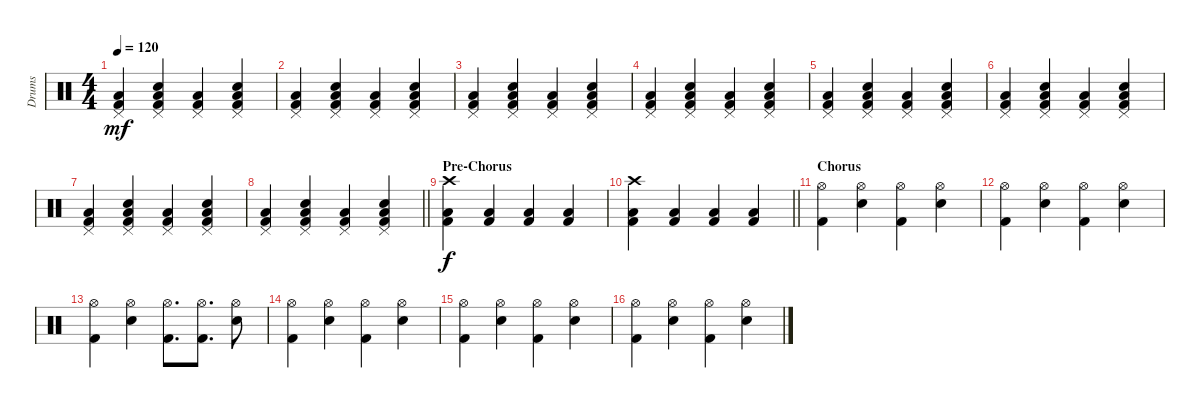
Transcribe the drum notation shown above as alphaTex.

\track ("Drums" "Drums") {instrument percussion}
\staff {score}
\articulation defaults
\ts (4 4)
\tempo 120
\clef neutral
\ks c
("Pedal Hi-Hat (hit)" "Low Floor Tom (hit)" "Kick (hit) 2").4{dy mf} ("Pedal Hi-Hat (hit)" "Snare (hit) 2" "Low Floor Tom (hit)" "Kick (hit) 2").4 ("Pedal Hi-Hat (hit)" "Low Floor Tom (hit)" "Kick (hit) 2").4 ("Pedal Hi-Hat (hit)" "Snare (hit) 2" "Low Floor Tom (hit)" "Kick (hit) 2").4 |
("Pedal Hi-Hat (hit)" "Low Floor Tom (hit)" "Kick (hit) 2").4 ("Pedal Hi-Hat (hit)" "Snare (hit) 2" "Low Floor Tom (hit)" "Kick (hit) 2").4 ("Pedal Hi-Hat (hit)" "Low Floor Tom (hit)" "Kick (hit) 2").4 ("Pedal Hi-Hat (hit)" "Snare (hit) 2" "Low Floor Tom (hit)" "Kick (hit) 2").4 |
("Pedal Hi-Hat (hit)" "Low Floor Tom (hit)" "Kick (hit) 2").4 ("Pedal Hi-Hat (hit)" "Snare (hit) 2" "Low Floor Tom (hit)" "Kick (hit) 2").4 ("Pedal Hi-Hat (hit)" "Low Floor Tom (hit)" "Kick (hit) 2").4 ("Pedal Hi-Hat (hit)" "Snare (hit) 2" "Low Floor Tom (hit)" "Kick (hit) 2").4 |
("Pedal Hi-Hat (hit)" "Low Floor Tom (hit)" "Kick (hit) 2").4 ("Pedal Hi-Hat (hit)" "Snare (hit) 2" "Low Floor Tom (hit)" "Kick (hit) 2").4 ("Pedal Hi-Hat (hit)" "Low Floor Tom (hit)" "Kick (hit) 2").4 ("Pedal Hi-Hat (hit)" "Snare (hit) 2" "Low Floor Tom (hit)" "Kick (hit) 2").4 |
("Pedal Hi-Hat (hit)" "Low Floor Tom (hit)" "Kick (hit) 2").4 ("Pedal Hi-Hat (hit)" "Snare (hit) 2" "Low Floor Tom (hit)" "Kick (hit) 2").4 ("Pedal Hi-Hat (hit)" "Low Floor Tom (hit)" "Kick (hit) 2").4 ("Pedal Hi-Hat (hit)" "Snare (hit) 2" "Low Floor Tom (hit)" "Kick (hit) 2").4 |
("Pedal Hi-Hat (hit)" "Low Floor Tom (hit)" "Kick (hit) 2").4 ("Pedal Hi-Hat (hit)" "Snare (hit) 2" "Low Floor Tom (hit)" "Kick (hit) 2").4 ("Pedal Hi-Hat (hit)" "Low Floor Tom (hit)" "Kick (hit) 2").4 ("Pedal Hi-Hat (hit)" "Snare (hit) 2" "Low Floor Tom (hit)" "Kick (hit) 2").4 |
("Pedal Hi-Hat (hit)" "Low Floor Tom (hit)" "Kick (hit) 2").4 ("Pedal Hi-Hat (hit)" "Snare (hit) 2" "Low Floor Tom (hit)" "Kick (hit) 2").4 ("Pedal Hi-Hat (hit)" "Low Floor Tom (hit)" "Kick (hit) 2").4 ("Pedal Hi-Hat (hit)" "Snare (hit) 2" "Low Floor Tom (hit)" "Kick (hit) 2").4 |
\barLineRight lightlight
("Pedal Hi-Hat (hit)" "Low Floor Tom (hit)" "Kick (hit) 2").4 ("Pedal Hi-Hat (hit)" "Snare (hit) 2" "Low Floor Tom (hit)" "Kick (hit) 2").4 ("Pedal Hi-Hat (hit)" "Low Floor Tom (hit)" "Kick (hit) 2").4 ("Pedal Hi-Hat (hit)" "Snare (hit) 2" "Low Floor Tom (hit)" "Kick (hit) 2").4 |
\section ("" "Pre-Chorus")
("Crash high (hit)" "Low Floor Tom (hit)" "Kick (hit) 2").4{dy f} ("Low Floor Tom (hit)" "Kick (hit) 2").4 ("Low Floor Tom (hit)" "Kick (hit) 2").4 ("Low Floor Tom (hit)" "Kick (hit) 2").4 |
\barLineRight lightlight
("Crash high (hit)" "Low Floor Tom (hit)" "Kick (hit) 2").4 ("Low Floor Tom (hit)" "Kick (hit) 2").4 ("Low Floor Tom (hit)" "Kick (hit) 2").4 ("Low Floor Tom (hit)" "Kick (hit) 2").4 |
\section ("" "Chorus")
("Hi-Hat (open)" "Kick (hit) 2").4 ("Hi-Hat (open)" "Snare (hit) 2").4 ("Hi-Hat (open)" "Kick (hit) 2").4 ("Hi-Hat (open)" "Snare (hit) 2").4 |
("Hi-Hat (open)" "Kick (hit) 2").4 ("Hi-Hat (open)" "Snare (hit) 2").4 ("Hi-Hat (open)" "Kick (hit) 2").4 ("Hi-Hat (open)" "Snare (hit) 2").4 |
("Hi-Hat (open)" "Kick (hit) 2").4 ("Hi-Hat (open)" "Snare (hit) 2").4 ("Hi-Hat (open)" "Kick (hit) 2").8{d} ("Hi-Hat (open)" "Kick (hit) 2").8{d} ("Hi-Hat (open)" "Snare (hit) 2").8 |
("Hi-Hat (open)" "Kick (hit) 2").4 ("Hi-Hat (open)" "Snare (hit) 2").4 ("Hi-Hat (open)" "Kick (hit) 2").4 ("Hi-Hat (open)" "Snare (hit) 2").4 |
("Hi-Hat (open)" "Kick (hit) 2").4 ("Hi-Hat (open)" "Snare (hit) 2").4 ("Hi-Hat (open)" "Kick (hit) 2").4 ("Hi-Hat (open)" "Snare (hit) 2").4 |
("Hi-Hat (open)" "Kick (hit) 2").4 ("Hi-Hat (open)" "Snare (hit) 2").4 ("Hi-Hat (open)" "Kick (hit) 2").4 ("Hi-Hat (open)" "Snare (hit) 2").4
